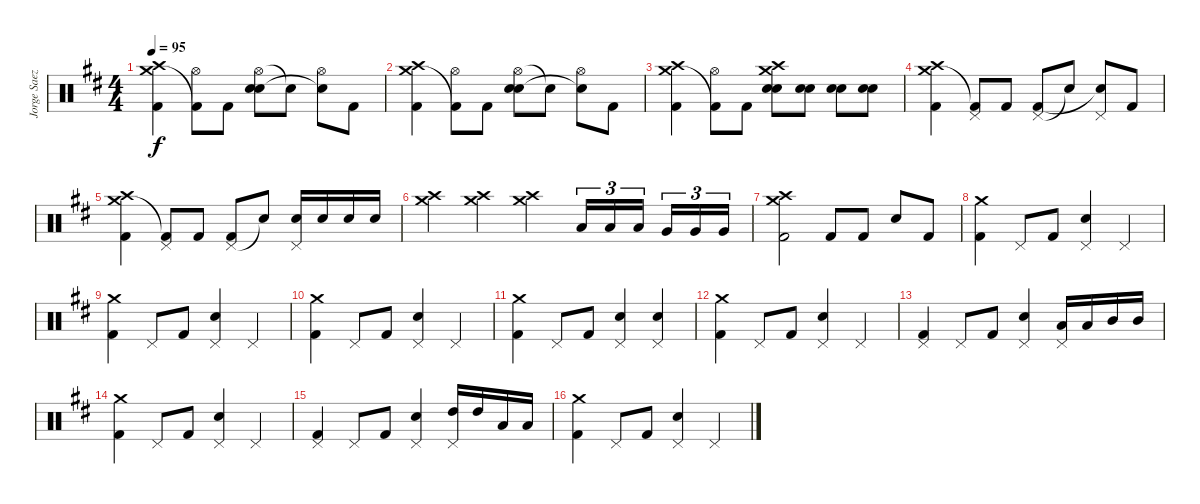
\track ("Jorge Saez - Drums" "Jorge Saez") {instrument percussion}
\staff {score}
\articulation defaults
\ts (4 4)
\tempo 95
\clef neutral
\ks bminor
("Crash high (hit)" "Crash medium (hit)" "Kick (hit) 2").4{dy f} ("Hi-Hat (open)" "Kick (hit) 2"{t}).8 "Kick (hit) 2".8 ("Hi-Hat (open)" "Electric Snare (hit)" "Snare (hit) 2").8 "Snare (hit)"{t}.8 ("Hi-Hat (open)" "Snare (hit)"{t}).8 "Kick (hit) 2".8 |
("Crash high (hit)" "Crash medium (hit)" "Kick (hit) 2").4 ("Hi-Hat (open)" "Kick (hit) 2"{t}).8 "Kick (hit) 2".8 ("Hi-Hat (open)" "Electric Snare (hit)" "Snare (hit) 2").8 "Snare (hit)"{t}.8 ("Hi-Hat (open)" "Snare (hit)"{t}).8 "Kick (hit) 2".8 |
("Crash high (hit)" "Crash medium (hit)" "Kick (hit) 2").4 ("Hi-Hat (open)" "Kick (hit) 2"{t}).8 "Kick (hit) 2".8 ("Crash medium (hit)" "Crash high (hit)" "Electric Snare (hit)" "Snare (hit) 2").8 ("Electric Snare (hit)" "Snare (hit) 2").8 ("Electric Snare (hit)" "Snare (hit) 2").8 ("Electric Snare (hit)" "Snare (hit) 2").8 |
("Crash high (hit)" "Crash medium (hit)" "Kick (hit) 2").4 ("Pedal Hi-Hat (hit)" "Kick (hit) 2"{t}).8 "Kick (hit) 2".8 ("Pedal Hi-Hat (hit)" "Kick (hit) 2").8 "Snare (hit)"{t}.8 ("Pedal Hi-Hat (hit)" "Snare (hit)"{t}).8 "Kick (hit) 2".8 |
("Crash high (hit)" "Crash medium (hit)" "Kick (hit) 2").4 ("Pedal Hi-Hat (hit)" "Kick (hit) 2"{t}).8 "Kick (hit) 2".8 ("Pedal Hi-Hat (hit)" "Kick (hit) 2").8 "Snare (hit)"{t}.8 ("Pedal Hi-Hat (hit)" "Snare (hit) 2").16 "Snare (hit) 2".16 "Snare (hit) 2".16 "Snare (hit) 2".16 |
("Crash medium (hit)" "Crash high (hit)").4 ("Crash medium (hit)" "Crash high (hit)").4 ("Crash medium (hit)" "Crash high (hit)").4 "Low Tom (hit)".16{tu (3 2)} "Low Tom (hit)".16{tu (3 2)} "Low Tom (hit)".16{tu (3 2)} "Very Low Tom (hit)".16{tu (3 2)} "Very Low Tom (hit)".16{tu (3 2)} "Very Low Tom (hit)".16{tu (3 2)} |
("Crash medium (hit)" "Crash high (hit)" "Kick (hit) 2").2 "Kick (hit) 2".8 "Kick (hit) 2".8 "Snare (hit) 2".8 "Kick (hit) 2".8 |
("Crash medium (hit)" "Kick (hit) 2").4 "Pedal Hi-Hat (hit)".8 "Kick (hit) 2".8 ("Pedal Hi-Hat (hit)" "Snare (hit) 2").4 "Pedal Hi-Hat (hit)".4 |
("Crash medium (hit)" "Kick (hit) 2").4 "Pedal Hi-Hat (hit)".8 "Kick (hit) 2".8 ("Pedal Hi-Hat (hit)" "Snare (hit) 2").4 "Pedal Hi-Hat (hit)".4 |
("Crash medium (hit)" "Kick (hit) 2").4 "Pedal Hi-Hat (hit)".8 "Kick (hit) 2".8 ("Pedal Hi-Hat (hit)" "Snare (hit) 2").4 "Pedal Hi-Hat (hit)".4 |
("Crash medium (hit)" "Kick (hit) 2").4 "Pedal Hi-Hat (hit)".8 "Kick (hit) 2".8 ("Pedal Hi-Hat (hit)" "Snare (hit) 2").4 ("Pedal Hi-Hat (hit)" "Snare (hit) 2").4 |
("Crash medium (hit)" "Kick (hit) 2").4 "Pedal Hi-Hat (hit)".8 "Kick (hit) 2".8 ("Pedal Hi-Hat (hit)" "Snare (hit) 2").4 "Pedal Hi-Hat (hit)".4 |
("Pedal Hi-Hat (hit)" "Kick (hit) 2").4 "Pedal Hi-Hat (hit)".8 "Kick (hit) 2".8 ("Pedal Hi-Hat (hit)" "Snare (hit) 2").4 ("Pedal Hi-Hat (hit)" "Low Tom (hit)").16 "Low Tom (hit)".16 "Mid Tom (hit)".16 "Mid Tom (hit)".16 |
("Crash medium (hit)" "Kick (hit) 2").4 "Pedal Hi-Hat (hit)".8 "Kick (hit) 2".8 ("Pedal Hi-Hat (hit)" "Snare (hit) 2").4 "Pedal Hi-Hat (hit)".4 |
("Pedal Hi-Hat (hit)" "Kick (hit) 2").4 "Pedal Hi-Hat (hit)".8 "Kick (hit) 2".8 ("Pedal Hi-Hat (hit)" "Snare (hit) 2").4 ("Pedal Hi-Hat (hit)" "High Tom (hit)").16 "High Tom (hit)".16 "Low Tom (hit)".16 "Low Tom (hit)".16 |
("Crash medium (hit)" "Kick (hit) 2").4 "Pedal Hi-Hat (hit)".8 "Kick (hit) 2".8 ("Pedal Hi-Hat (hit)" "Snare (hit) 2").4 "Pedal Hi-Hat (hit)".4
